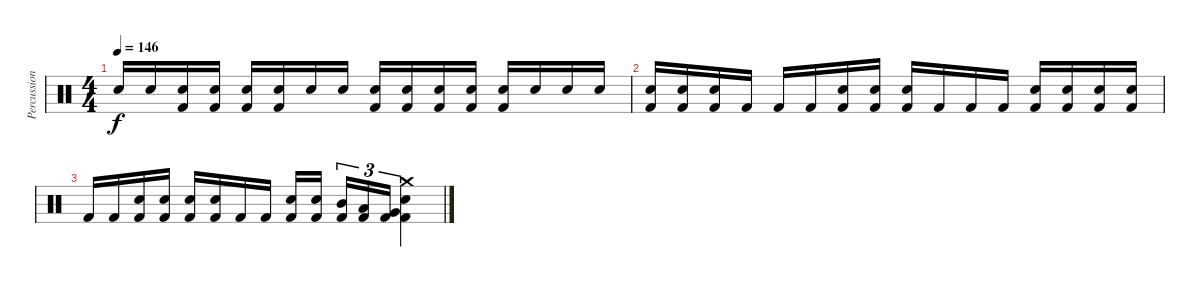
\track ("Percussion" "Percussion") {instrument percussion}
\staff {score}
\articulation defaults
\ts (4 4)
\tempo 146
\clef neutral
\ks c "Snare (hit) 2".16{dy f} "Snare (hit) 2".16
("Kick (hit) 2" "Snare (hit) 2").16 ("Kick (hit) 2" "Snare (hit) 2").16 ("Kick (hit) 2" "Snare (hit) 2").16 ("Kick (hit) 2" "Snare (hit) 2").16 "Snare (hit) 2".16 "Snare (hit) 2".16 ("Kick (hit) 2" "Snare (hit) 2").16 ("Kick (hit) 2" "Snare (hit) 2").16 ("Kick (hit) 2" "Snare (hit) 2").16 ("Kick (hit) 2" "Snare (hit) 2").16 ("Kick (hit) 2" "Snare (hit) 2").16 "Snare (hit) 2".16 "Snare (hit) 2".16 "Snare (hit) 2".16 |
("Kick (hit) 2" "Electric Snare (hit)").16 ("Kick (hit) 2" "Electric Snare (hit)").16 ("Kick (hit) 2" "Electric Snare (hit)").16 "Kick (hit) 2".16 "Kick (hit) 2".16 "Kick (hit) 2".16 ("Kick (hit) 2" "Electric Snare (hit)").16 ("Kick (hit) 2" "Electric Snare (hit)").16 ("Kick (hit) 2" "Electric Snare (hit)").16 "Kick (hit) 2".16 "Kick (hit) 2".16 "Kick (hit) 2".16 ("Kick (hit) 2" "Electric Snare (hit)").16 ("Kick (hit) 2" "Electric Snare (hit)").16 ("Kick (hit) 2" "Electric Snare (hit)").16 ("Kick (hit) 2" "Electric Snare (hit)").16 |
"Kick (hit) 2".16 "Kick (hit) 2".16 ("Kick (hit) 2" "Electric Snare (hit)").16 ("Kick (hit) 2" "Electric Snare (hit)").16 ("Kick (hit) 2" "Electric Snare (hit)").16 ("Kick (hit) 2" "Electric Snare (hit)").16 "Kick (hit) 2".16 "Kick (hit) 2".16 ("Kick (hit) 2" "Electric Snare (hit)").16 ("Kick (hit) 2" "Electric Snare (hit)").16{beam splitsecondary} ("Kick (hit) 2" "Mid Tom (hit)").16{tu (3 2)} ("Kick (hit) 2" "Low Tom (hit)").16{tu (3 2)} ("Kick (hit) 2" "Very Low Tom (hit)").16{tu (3 2)} ("Kick (hit) 2" "Electric Snare (hit)" "Crash medium (hit)").4
